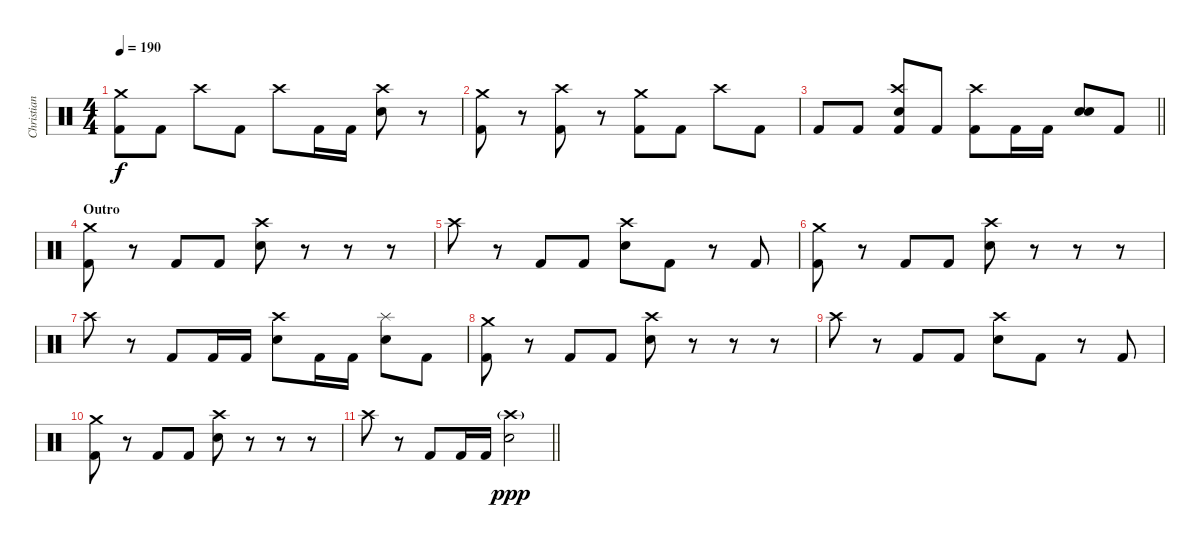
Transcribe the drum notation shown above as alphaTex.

\track ("Christian" "Christian") {instrument percussion}
\staff {score}
\articulation defaults
\ts (4 4)
\tempo 190
\clef neutral
\ks c
("Crash medium (hit)" "Kick (hit) 2").8{dy f} "Kick (hit) 2".8 "Crash high (hit)".8 "Kick (hit) 2".8 "Crash high (hit)".8 "Kick (hit) 2".16 "Kick (hit) 2".16 ("Crash high (hit)" "Electric Snare (hit)").8 r.8 |
("Crash medium (hit)" "Kick (hit) 2").8 r.8 ("Crash high (hit)" "Kick (hit) 2").8 r.8 ("Crash medium (hit)" "Kick (hit) 2").8 "Kick (hit) 2".8 "Crash high (hit)".8 "Kick (hit) 2".8 |
\barLineRight lightlight "Kick (hit) 2".8 "Kick (hit) 2".8
("Crash high (hit)" "Electric Snare (hit)" "Kick (hit) 2").8 "Kick (hit) 2".8 ("Crash high (hit)" "Kick (hit) 2").8 "Kick (hit) 2".16 "Kick (hit) 2".16 ("Electric Snare (hit)" "Electric Snare (hit)").8 "Kick (hit) 2".8 |
\section ("" "Outro")
("Crash medium (hit)" "Kick (hit) 2").8 r.8 "Kick (hit) 2".8 "Kick (hit) 2".8 ("Crash high (hit)" "Electric Snare (hit)").8 r.8 r.8 r.8 |
"Crash high (hit)".8 r.8 "Kick (hit) 2".8 "Kick (hit) 2".8 ("Crash high (hit)" "Electric Snare (hit)").8 "Kick (hit) 2".8 r.8 "Kick (hit) 2".8 |
("Crash medium (hit)" "Kick (hit) 2").8 r.8 "Kick (hit) 2".8 "Kick (hit) 2".8 ("Crash high (hit)" "Electric Snare (hit)").8 r.8 r.8 r.8 |
"Crash high (hit)".8 r.8 "Kick (hit) 2".8 "Kick (hit) 2".16 "Kick (hit) 2".16 ("Crash high (hit)" "Electric Snare (hit)").8 "Kick (hit) 2".16 "Kick (hit) 2".16 ("Splash (hit)" "Electric Snare (hit)").8 "Kick (hit) 2".8 |
("Crash medium (hit)" "Kick (hit) 2").8 r.8 "Kick (hit) 2".8 "Kick (hit) 2".8 ("Crash high (hit)" "Electric Snare (hit)").8 r.8 r.8 r.8 |
"Crash high (hit)".8 r.8 "Kick (hit) 2".8 "Kick (hit) 2".8 ("Crash high (hit)" "Electric Snare (hit)").8 "Kick (hit) 2".8 r.8 "Kick (hit) 2".8 |
("Crash medium (hit)" "Kick (hit) 2").8 r.8 "Kick (hit) 2".8 "Kick (hit) 2".8 ("Crash high (hit)" "Electric Snare (hit)").8 r.8 r.8 r.8 |
\barLineRight lightlight "Crash high (hit)".8
r.8 "Kick (hit) 2".8 "Kick (hit) 2".16 "Kick (hit) 2".16 ("Crash high (hit)"{g} "Electric Snare (hit)").2{dy ppp}
